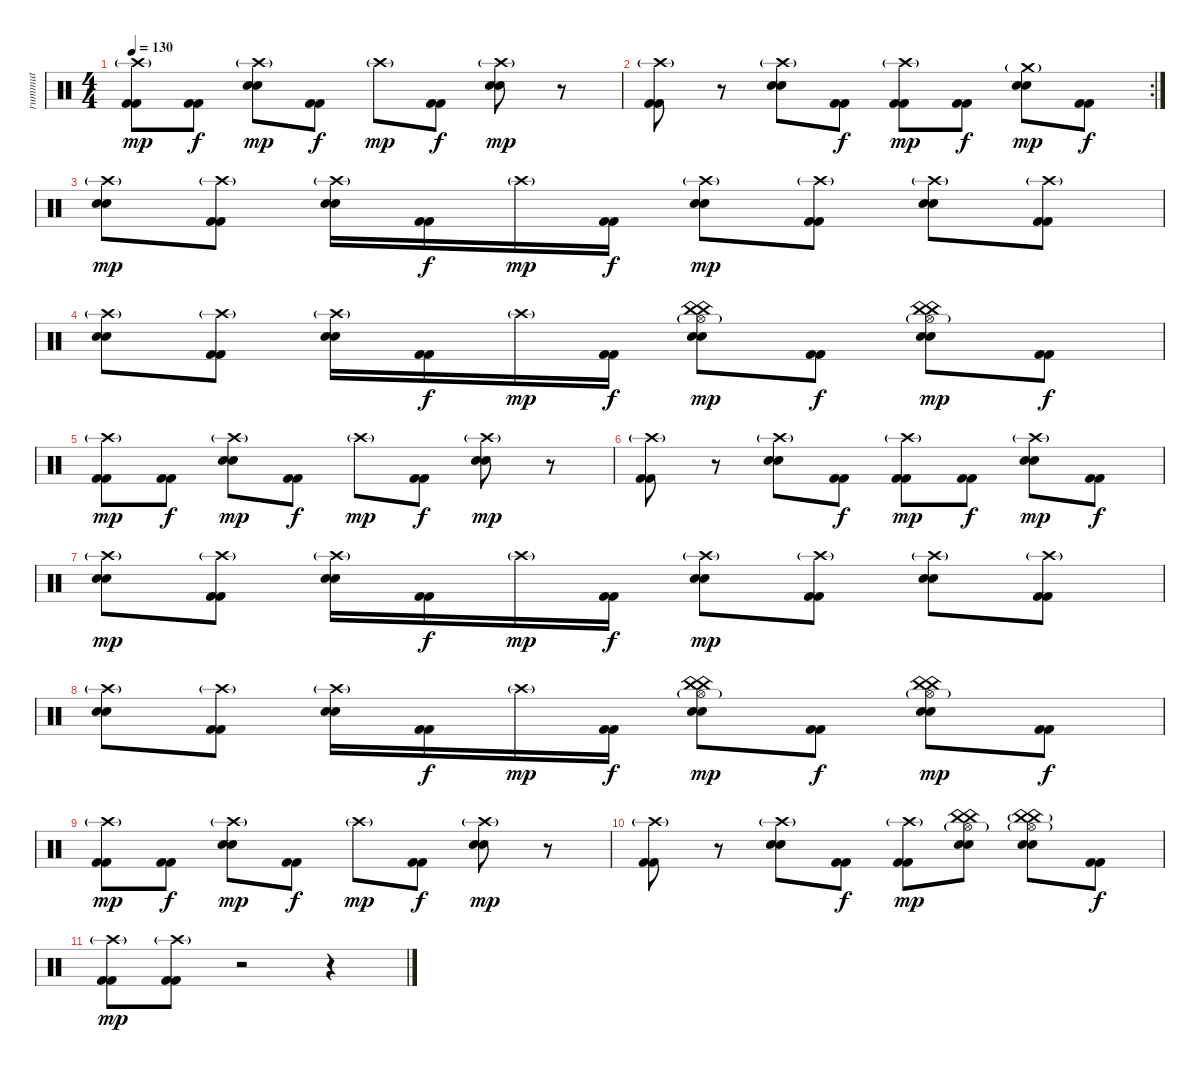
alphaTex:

\track ("rummut" "rummut") {instrument percussion}
\staff {score}
\articulation defaults
\ts (4 4)
\tempo 130
\clef neutral
\ks c
("Crash high (hit)"{g} "Kick (hit) 2" "Kick (hit) 2").8{dy mp} ("Kick (hit) 2" "Kick (hit) 2").8{dy f} ("Crash high (hit)"{g} "Electric Snare (hit)" "Electric Snare (hit)").8{dy mp} ("Kick (hit) 2" "Kick (hit) 2").8{dy f} "Crash high (hit)"{g}.8{dy mp} ("Kick (hit) 2" "Kick (hit) 2").8{dy f} ("Crash high (hit)"{g} "Electric Snare (hit)" "Electric Snare (hit)").8{dy mp} r.8 |
\rc 2
("Crash high (hit)"{g} "Kick (hit) 2" "Kick (hit) 2").8 r.8 ("Crash high (hit)"{g} "Electric Snare (hit)" "Electric Snare (hit)").8 ("Kick (hit) 2" "Kick (hit) 2").8{dy f} ("Crash high (hit)"{g} "Kick (hit) 2" "Kick (hit) 2").8{dy mp} ("Kick (hit) 2" "Kick (hit) 2").8{dy f} ("Crash medium (hit)"{g} "Electric Snare (hit)" "Electric Snare (hit)").8{dy mp} ("Kick (hit) 2" "Kick (hit) 2").8{dy f} |
("Crash high (hit)"{g} "Electric Snare (hit)" "Electric Snare (hit)").8{dy mp} ("Crash high (hit)"{g} "Kick (hit) 2" "Kick (hit) 2").8 ("Crash high (hit)"{g} "Electric Snare (hit)" "Electric Snare (hit)").16 ("Kick (hit) 2" "Kick (hit) 2").16{dy f} "Crash high (hit)"{g}.16{dy mp} ("Kick (hit) 2" "Kick (hit) 2").16{dy f} ("Crash high (hit)"{g} "Electric Snare (hit)" "Electric Snare (hit)").8{dy mp} ("Crash high (hit)"{g} "Kick (hit) 2" "Kick (hit) 2").8 ("Crash high (hit)"{g} "Electric Snare (hit)" "Electric Snare (hit)").8 ("Crash high (hit)"{g} "Kick (hit) 2" "Kick (hit) 2").8 |
("Crash high (hit)"{g} "Electric Snare (hit)" "Electric Snare (hit)").8 ("Crash high (hit)"{g} "Kick (hit) 2" "Kick (hit) 2").8 ("Crash high (hit)"{g} "Electric Snare (hit)" "Electric Snare (hit)").16 ("Kick (hit) 2" "Kick (hit) 2").16{dy f} "Crash high (hit)"{g}.16{dy mp} ("Kick (hit) 2" "Kick (hit) 2").16{dy f} ("China (hit)" "China (hit)" "Hi-Hat (open)"{g} "Electric Snare (hit)" "Electric Snare (hit)").8{dy mp} ("Kick (hit) 2" "Kick (hit) 2").8{dy f} ("China (hit)" "China (hit)" "Hi-Hat (open)"{g} "Electric Snare (hit)" "Electric Snare (hit)").8{dy mp} ("Kick (hit) 2" "Kick (hit) 2").8{dy f} |
("Crash high (hit)"{g} "Kick (hit) 2" "Kick (hit) 2").8{dy mp} ("Kick (hit) 2" "Kick (hit) 2").8{dy f} ("Crash high (hit)"{g} "Electric Snare (hit)" "Electric Snare (hit)").8{dy mp} ("Kick (hit) 2" "Kick (hit) 2").8{dy f} "Crash high (hit)"{g}.8{dy mp} ("Kick (hit) 2" "Kick (hit) 2").8{dy f} ("Crash high (hit)"{g} "Electric Snare (hit)" "Electric Snare (hit)").8{dy mp} r.8 |
("Crash high (hit)"{g} "Kick (hit) 2" "Kick (hit) 2").8 r.8 ("Crash high (hit)"{g} "Electric Snare (hit)" "Electric Snare (hit)").8 ("Kick (hit) 2" "Kick (hit) 2").8{dy f} ("Crash high (hit)"{g} "Kick (hit) 2" "Kick (hit) 2").8{dy mp} ("Kick (hit) 2" "Kick (hit) 2").8{dy f} ("Crash high (hit)"{g} "Electric Snare (hit)" "Electric Snare (hit)").8{dy mp} ("Kick (hit) 2" "Kick (hit) 2").8{dy f} |
("Crash high (hit)"{g} "Electric Snare (hit)" "Electric Snare (hit)").8{dy mp} ("Crash high (hit)"{g} "Kick (hit) 2" "Kick (hit) 2").8 ("Crash high (hit)"{g} "Electric Snare (hit)" "Electric Snare (hit)").16 ("Kick (hit) 2" "Kick (hit) 2").16{dy f} "Crash high (hit)"{g}.16{dy mp} ("Kick (hit) 2" "Kick (hit) 2").16{dy f} ("Crash high (hit)"{g} "Electric Snare (hit)" "Electric Snare (hit)").8{dy mp} ("Crash high (hit)"{g} "Kick (hit) 2" "Kick (hit) 2").8 ("Crash high (hit)"{g} "Electric Snare (hit)" "Electric Snare (hit)").8 ("Crash high (hit)"{g} "Kick (hit) 2" "Kick (hit) 2").8 |
("Crash high (hit)"{g} "Electric Snare (hit)" "Electric Snare (hit)").8 ("Crash high (hit)"{g} "Kick (hit) 2" "Kick (hit) 2").8 ("Crash high (hit)"{g} "Electric Snare (hit)" "Electric Snare (hit)").16 ("Kick (hit) 2" "Kick (hit) 2").16{dy f} "Crash high (hit)"{g}.16{dy mp} ("Kick (hit) 2" "Kick (hit) 2").16{dy f} ("China (hit)" "China (hit)" "Hi-Hat (open)"{g} "Electric Snare (hit)" "Electric Snare (hit)").8{dy mp} ("Kick (hit) 2" "Kick (hit) 2").8{dy f} ("China (hit)" "China (hit)" "Hi-Hat (open)"{g} "Electric Snare (hit)" "Electric Snare (hit)").8{dy mp} ("Kick (hit) 2" "Kick (hit) 2").8{dy f} |
("Crash high (hit)"{g} "Kick (hit) 2" "Kick (hit) 2").8{dy mp} ("Kick (hit) 2" "Kick (hit) 2").8{dy f} ("Crash high (hit)"{g} "Electric Snare (hit)" "Electric Snare (hit)").8{dy mp} ("Kick (hit) 2" "Kick (hit) 2").8{dy f} "Crash high (hit)"{g}.8{dy mp} ("Kick (hit) 2" "Kick (hit) 2").8{dy f} ("Crash high (hit)"{g} "Electric Snare (hit)" "Electric Snare (hit)").8{dy mp} r.8 |
("Crash high (hit)"{g} "Kick (hit) 2" "Kick (hit) 2").8 r.8 ("Crash high (hit)"{g} "Electric Snare (hit)" "Electric Snare (hit)").8 ("Kick (hit) 2" "Kick (hit) 2").8{dy f} ("Crash high (hit)"{g} "Kick (hit) 2" "Kick (hit) 2").8{dy mp} ("China (hit)" "China (hit)" "Hi-Hat (open)"{g} "Electric Snare (hit)" "Electric Snare (hit)").8 ("China (hit)"{g} "China (hit)" "Hi-Hat (open)"{g} "Electric Snare (hit)" "Electric Snare (hit)").8 ("Kick (hit) 2" "Kick (hit) 2").8{dy f} |
("Crash high (hit)"{g} "Kick (hit) 2" "Kick (hit) 2").8{dy mp} ("Crash high (hit)"{g} "Kick (hit) 2" "Kick (hit) 2").8 r.2 r.4
